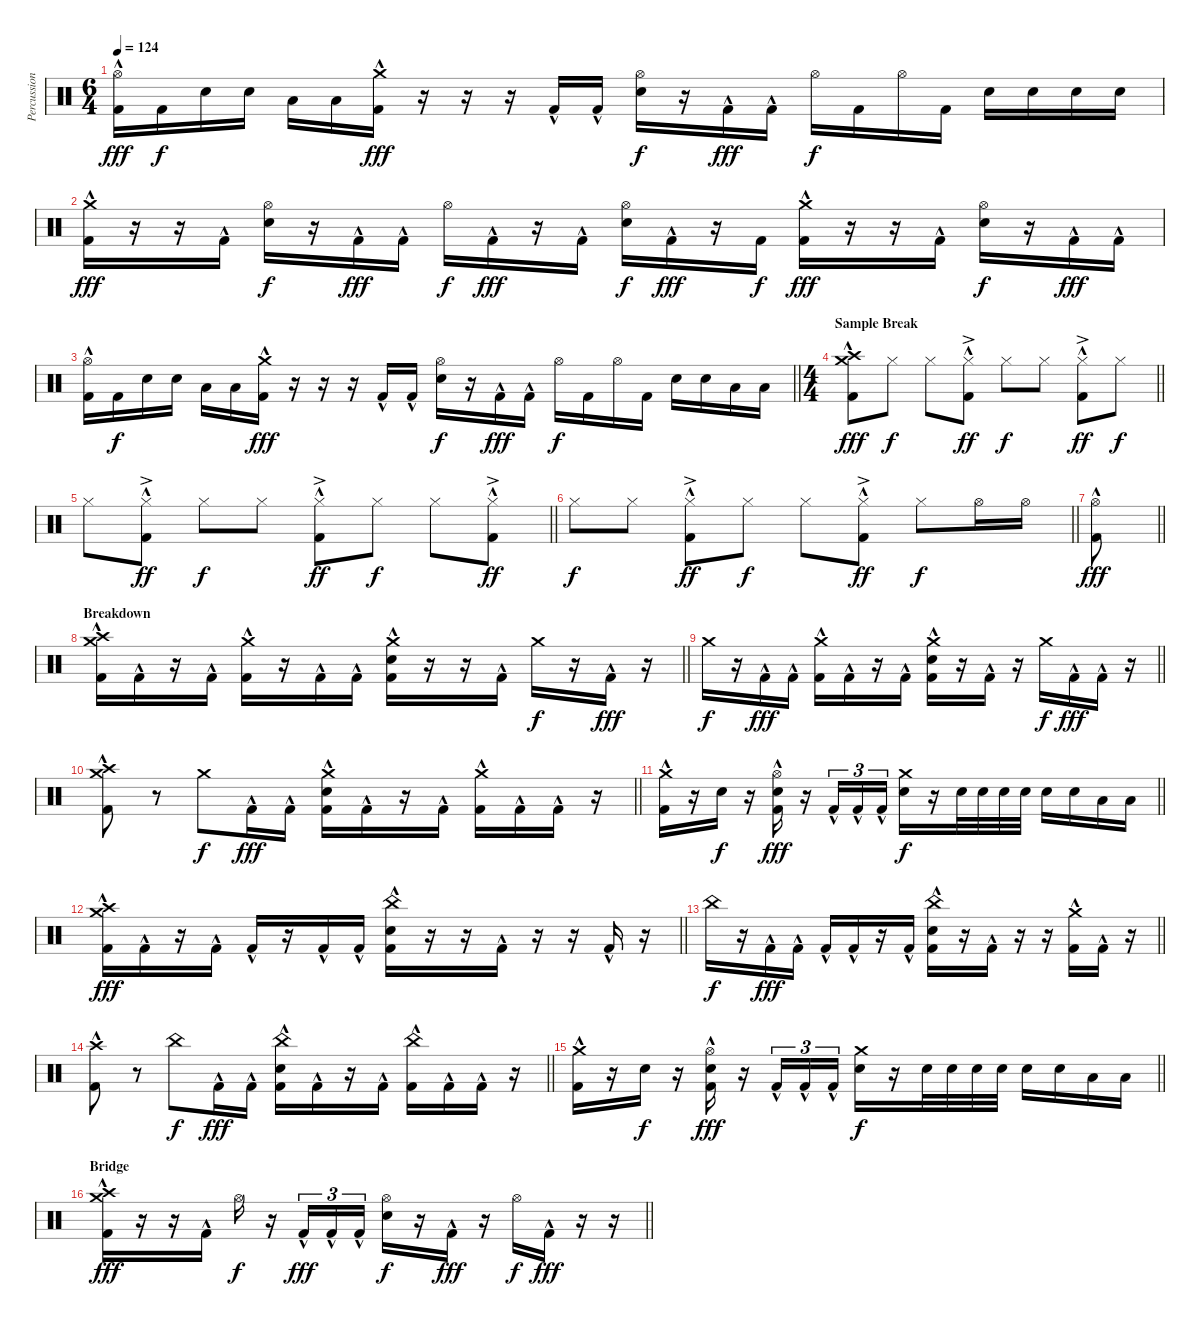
\track ("Percussion" "Percussion") {instrument percussion}
\staff {score}
\articulation defaults
\ts (6 4)
\tempo 124
\clef neutral
\ks c
("Hi-Hat (open)" "Kick (hit) 2"{hac}).16{dy fff} "Kick (hit) 2".16{dy f} "Electric Snare (hit)".16 "Electric Snare (hit)".16 "Low Tom (hit)".16 "Low Tom (hit)".16 ("Crash medium (hit)" "Kick (hit) 2"{hac}).16{dy fff} r.16 r.16 r.16 "Kick (hit) 2"{hac}.16 "Kick (hit) 2"{hac}.16 ("Electric Snare (hit)" "Hi-Hat (open)").16{dy f} r.16 "Kick (hit) 2"{hac}.16{dy fff} "Kick (hit) 2"{hac}.16 "Hi-Hat (open)".16{dy f} "Kick (hit) 2".16 "Hi-Hat (open)".16 "Kick (hit) 2".16 "Electric Snare (hit)".16 "Electric Snare (hit)".16 "Electric Snare (hit)".16 "Electric Snare (hit)".16 |
("Crash medium (hit)" "Kick (hit) 2"{hac}).16{dy fff} r.16 r.16 "Kick (hit) 2"{hac}.16 ("Electric Snare (hit)" "Hi-Hat (open)").16{dy f} r.16 "Kick (hit) 2"{hac}.16{dy fff} "Kick (hit) 2"{hac}.16 "Hi-Hat (open)".16{dy f} "Kick (hit) 2"{hac}.16{dy fff} r.16 "Kick (hit) 2"{hac}.16 ("Electric Snare (hit)" "Hi-Hat (open)").16{dy f} "Kick (hit) 2"{hac}.16{dy fff} r.16 "Kick (hit) 2".16{dy f} ("Crash medium (hit)" "Kick (hit) 2"{hac}).16{dy fff} r.16 r.16 "Kick (hit) 2"{hac}.16 ("Electric Snare (hit)" "Hi-Hat (open)").16{dy f} r.16 "Kick (hit) 2"{hac}.16{dy fff} "Kick (hit) 2"{hac}.16 |
\barLineRight lightlight
("Hi-Hat (open)" "Kick (hit) 2"{hac}).16 "Kick (hit) 2".16{dy f} "Electric Snare (hit)".16 "Electric Snare (hit)".16 "Low Tom (hit)".16 "Low Tom (hit)".16 ("Crash medium (hit)" "Kick (hit) 2"{hac}).16{dy fff} r.16 r.16 r.16 "Kick (hit) 2"{hac}.16 "Kick (hit) 2"{hac}.16 ("Electric Snare (hit)" "Hi-Hat (open)").16{dy f} r.16 "Kick (hit) 2"{hac}.16{dy fff} "Kick (hit) 2"{hac}.16 "Hi-Hat (open)".16{dy f} "Kick (hit) 2".16 "Hi-Hat (open)".16 "Kick (hit) 2".16 "Electric Snare (hit)".16 "Electric Snare (hit)".16 "Low Tom (hit)".16 "Low Tom (hit)".16 |
\ts (4 4)
\section ("" "Sample Break")
\barLineRight lightlight
("Crash high (hit)" "Crash medium (hit)" "Kick (hit) 2"{hac}).8{dy fff} "Hi-Hat (closed)".8{dy f} "Hi-Hat (closed)".8 ("Kick (hit) 2"{hac} "Hi-Hat (closed)"{ac}).8{dy ff} "Hi-Hat (closed)".8{dy f} "Hi-Hat (closed)".8 ("Kick (hit) 2"{hac} "Hi-Hat (closed)"{ac}).8{dy ff} "Hi-Hat (closed)".8{dy f} |
\barLineRight lightlight "Hi-Hat (closed)".8
("Kick (hit) 2"{hac} "Hi-Hat (closed)"{ac}).8{dy ff} "Hi-Hat (closed)".8{dy f} "Hi-Hat (closed)".8 ("Kick (hit) 2"{hac} "Hi-Hat (closed)"{ac}).8{dy ff} "Hi-Hat (closed)".8{dy f} "Hi-Hat (closed)".8 ("Kick (hit) 2"{hac} "Hi-Hat (closed)"{ac}).8{dy ff} |
\barLineRight lightlight "Hi-Hat (closed)".8{dy f} "Hi-Hat (closed)".8
("Kick (hit) 2"{hac} "Hi-Hat (closed)"{ac}).8{dy ff} "Hi-Hat (closed)".8{dy f} "Hi-Hat (closed)".8 ("Kick (hit) 2"{hac} "Hi-Hat (closed)"{ac}).8{dy ff} "Hi-Hat (closed)".8{dy f} "Hi-Hat (open)".16 "Hi-Hat (open)".16 |
\barLineRight lightlight
("Kick (hit) 2"{hac} "Hi-Hat (open)").8{dy fff} |
\section ("" "Breakdown")
\barLineRight lightlight
("Crash medium (hit)" "Crash high (hit)" "Kick (hit) 2"{hac}).16 "Kick (hit) 2"{hac}.16 r.16 "Kick (hit) 2"{hac}.16 ("Crash medium (hit)" "Kick (hit) 2"{hac}).16 r.16 "Kick (hit) 2"{hac}.16 "Kick (hit) 2"{hac}.16 ("Crash medium (hit)" "Electric Snare (hit)" "Kick (hit) 2"{hac}).16 r.16 r.16 "Kick (hit) 2"{hac}.16 "Crash medium (hit)".16{dy f} r.16 "Kick (hit) 2"{hac}.16{dy fff} r.16 |
\barLineRight lightlight "Crash medium (hit)".16{dy f}
r.16 "Kick (hit) 2"{hac}.16{dy fff} "Kick (hit) 2"{hac}.16 ("Crash medium (hit)" "Kick (hit) 2"{hac}).16 "Kick (hit) 2"{hac}.16 r.16 "Kick (hit) 2"{hac}.16 ("Crash medium (hit)" "Electric Snare (hit)" "Kick (hit) 2"{hac}).16 r.16 "Kick (hit) 2"{hac}.16 r.16 "Crash medium (hit)".16{dy f} "Kick (hit) 2"{hac}.16{dy fff} "Kick (hit) 2"{hac}.16 r.16 |
\barLineRight lightlight
("Crash medium (hit)" "Crash high (hit)" "Kick (hit) 2"{hac}).8 r.8 "Crash medium (hit)".8{dy f} "Kick (hit) 2"{hac}.16{dy fff} "Kick (hit) 2"{hac}.16 ("Crash medium (hit)" "Electric Snare (hit)" "Kick (hit) 2"{hac}).16 "Kick (hit) 2"{hac}.16 r.16 "Kick (hit) 2"{hac}.16 ("Crash medium (hit)" "Kick (hit) 2"{hac}).16 "Kick (hit) 2"{hac}.16 "Kick (hit) 2"{hac}.16 r.16 |
\barLineRight lightlight
("Crash medium (hit)" "Kick (hit) 2"{hac}).16 r.16 "Electric Snare (hit)".16{dy f} r.16 ("Hi-Hat (open)" "Electric Snare (hit)" "Kick (hit) 2"{hac}).16{dy fff} r.16 "Kick (hit) 2"{hac}.16{tu (3 2)} "Kick (hit) 2"{hac}.16{tu (3 2)} "Kick (hit) 2"{hac}.16{tu (3 2)} ("Crash medium (hit)" "Electric Snare (hit)").16{dy f} r.16 "Electric Snare (hit)".32 "Electric Snare (hit)".32 "Electric Snare (hit)".32 "Electric Snare (hit)".32 "Electric Snare (hit)".16 "Electric Snare (hit)".16 "Low Tom (hit)".16 "Low Tom (hit)".16 |
\barLineRight lightlight
("Crash medium (hit)" "Crash high (hit)" "Kick (hit) 2"{hac}).16{dy fff} "Kick (hit) 2"{hac}.16 r.16 "Kick (hit) 2"{hac}.16 "Kick (hit) 2"{hac}.16 r.16 "Kick (hit) 2"{hac}.16 "Kick (hit) 2"{hac}.16 ("China (hit)" "Electric Snare (hit)" "Kick (hit) 2"{hac}).16 r.16 r.16 "Kick (hit) 2"{hac}.16 r.16 r.16 "Kick (hit) 2"{hac}.16 r.16 |
\barLineRight lightlight "China (hit)".16{dy f}
r.16 "Kick (hit) 2"{hac}.16{dy fff} "Kick (hit) 2"{hac}.16 "Kick (hit) 2"{hac}.16 "Kick (hit) 2"{hac}.16 r.16 "Kick (hit) 2"{hac}.16 ("China (hit)" "Electric Snare (hit)" "Kick (hit) 2"{hac}).16 r.16 "Kick (hit) 2"{hac}.16 r.16 r.16 ("Crash medium (hit)" "Kick (hit) 2"{hac}).16 "Kick (hit) 2"{hac}.16 r.16 |
\barLineRight lightlight
("Crash high (hit)" "Kick (hit) 2"{hac}).8 r.8 "China (hit)".8{dy f} "Kick (hit) 2"{hac}.16{dy fff} "Kick (hit) 2"{hac}.16 ("China (hit)" "Electric Snare (hit)" "Kick (hit) 2"{hac}).16 "Kick (hit) 2"{hac}.16 r.16 "Kick (hit) 2"{hac}.16 ("China (hit)" "Kick (hit) 2"{hac}).16 "Kick (hit) 2"{hac}.16 "Kick (hit) 2"{hac}.16 r.16 |
\barLineRight lightlight
("Crash medium (hit)" "Kick (hit) 2"{hac}).16 r.16 "Electric Snare (hit)".16{dy f} r.16 ("Hi-Hat (open)" "Electric Snare (hit)" "Kick (hit) 2"{hac}).16{dy fff} r.16 "Kick (hit) 2"{hac}.16{tu (3 2)} "Kick (hit) 2"{hac}.16{tu (3 2)} "Kick (hit) 2"{hac}.16{tu (3 2)} ("Crash medium (hit)" "Electric Snare (hit)").16{dy f} r.16 "Electric Snare (hit)".32 "Electric Snare (hit)".32 "Electric Snare (hit)".32 "Electric Snare (hit)".32 "Electric Snare (hit)".16 "Electric Snare (hit)".16 "Low Tom (hit)".16 "Low Tom (hit)".16 |
\section ("" "Bridge")
\barLineRight lightlight
("Crash high (hit)" "Crash medium (hit)" "Kick (hit) 2"{hac}).16{dy fff} r.16 r.16 "Kick (hit) 2"{hac}.16 "Hi-Hat (open)".16{dy f} r.16 "Kick (hit) 2"{hac}.16{tu (3 2) dy fff} "Kick (hit) 2"{hac}.16{tu (3 2)} "Kick (hit) 2"{hac}.16{tu (3 2)} ("Electric Snare (hit)" "Hi-Hat (open)").16{dy f} r.16 "Kick (hit) 2"{hac}.16{dy fff} r.16 "Hi-Hat (open)".16{dy f} "Kick (hit) 2"{hac}.16{dy fff} r.16 r.16
